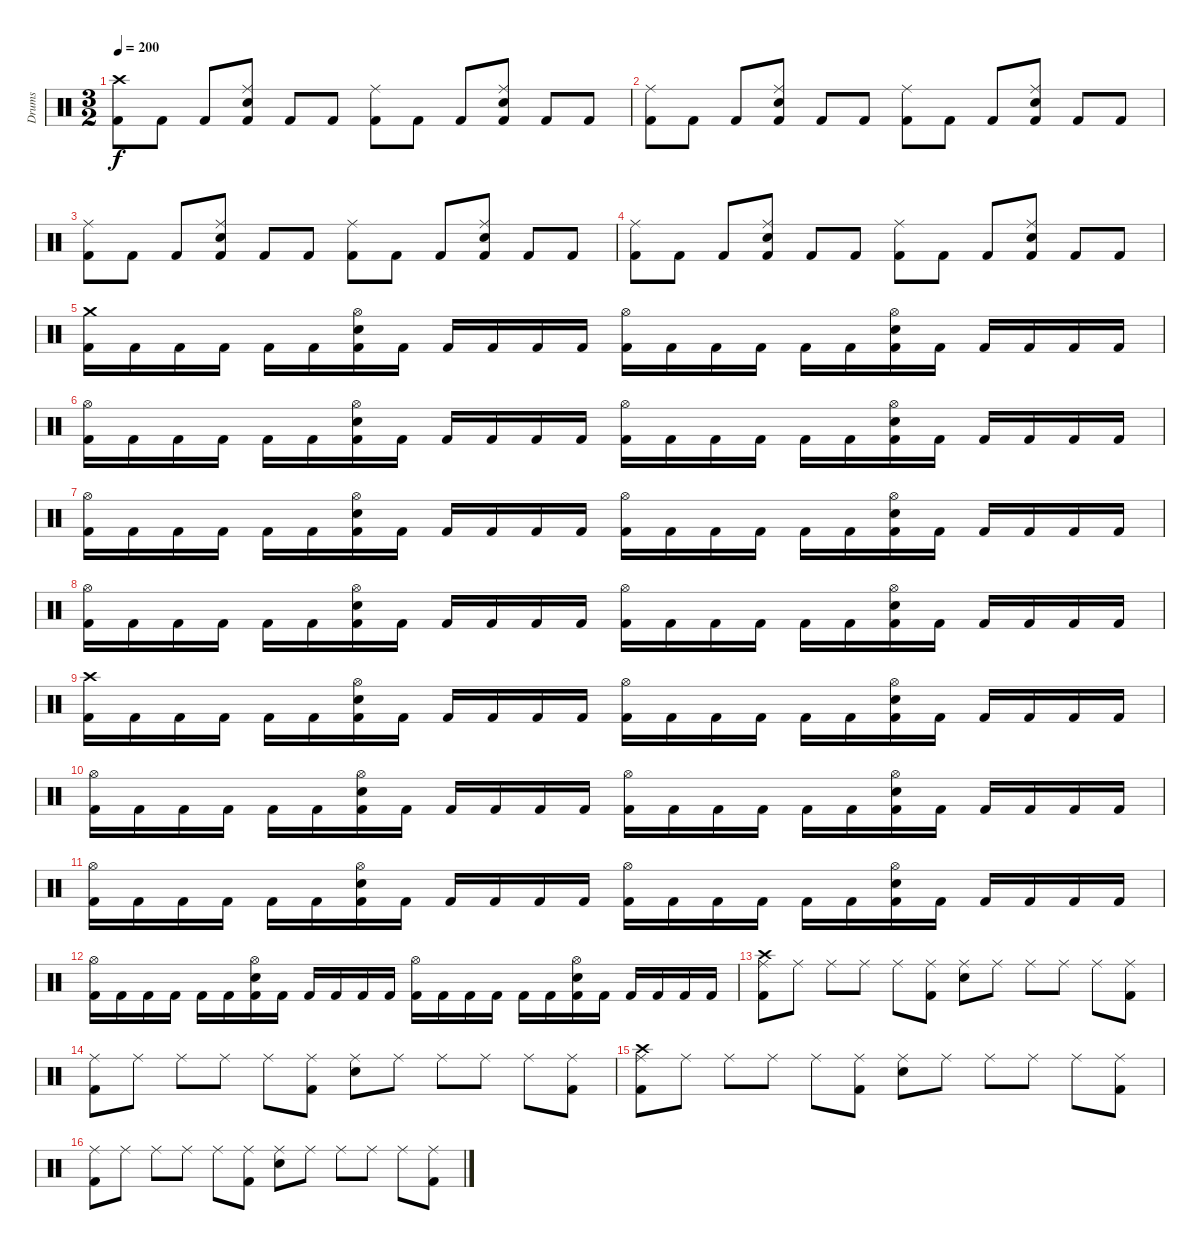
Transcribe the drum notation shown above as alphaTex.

\track ("Drums" "Drums") {instrument percussion}
\staff {score}
\articulation defaults
\ts (3 2)
\tempo 200
\clef neutral
\ks c
("Kick (hit) 2" "Crash high (hit)").8{dy f} "Kick (hit) 2".8 "Kick (hit) 2".8 ("Kick (hit) 2" "Ride (middle)" "Snare (hit) 2").8 "Kick (hit) 2".8 "Kick (hit) 2".8 ("Kick (hit) 2" "Ride (middle)").8 "Kick (hit) 2".8 "Kick (hit) 2".8 ("Kick (hit) 2" "Ride (middle)" "Snare (hit) 2").8 "Kick (hit) 2".8 "Kick (hit) 2".8 |
("Kick (hit) 2" "Ride (middle)").8 "Kick (hit) 2".8 "Kick (hit) 2".8 ("Kick (hit) 2" "Ride (middle)" "Snare (hit) 2").8 "Kick (hit) 2".8 "Kick (hit) 2".8 ("Kick (hit) 2" "Ride (middle)").8 "Kick (hit) 2".8 "Kick (hit) 2".8 ("Kick (hit) 2" "Ride (middle)" "Snare (hit) 2").8 "Kick (hit) 2".8 "Kick (hit) 2".8 |
("Kick (hit) 2" "Ride (middle)").8 "Kick (hit) 2".8 "Kick (hit) 2".8 ("Kick (hit) 2" "Ride (middle)" "Snare (hit) 2").8 "Kick (hit) 2".8 "Kick (hit) 2".8 ("Kick (hit) 2" "Ride (middle)").8 "Kick (hit) 2".8 "Kick (hit) 2".8 ("Kick (hit) 2" "Ride (middle)" "Snare (hit) 2").8 "Kick (hit) 2".8 "Kick (hit) 2".8 |
("Kick (hit) 2" "Ride (middle)").8 "Kick (hit) 2".8 "Kick (hit) 2".8 ("Kick (hit) 2" "Ride (middle)" "Snare (hit) 2").8 "Kick (hit) 2".8 "Kick (hit) 2".8 ("Kick (hit) 2" "Ride (middle)").8 "Kick (hit) 2".8 "Kick (hit) 2".8 ("Kick (hit) 2" "Ride (middle)" "Snare (hit) 2").8 "Kick (hit) 2".8 "Kick (hit) 2".8 |
("Kick (hit) 2" "Crash medium (hit)").16 "Kick (hit) 2".16 "Kick (hit) 2".16 "Kick (hit) 2".16 "Kick (hit) 2".16 "Kick (hit) 2".16 ("Kick (hit) 2" "Hi-Hat (open)" "Snare (hit) 2").16 "Kick (hit) 2".16 "Kick (hit) 2".16 "Kick (hit) 2".16 "Kick (hit) 2".16 "Kick (hit) 2".16 ("Kick (hit) 2" "Hi-Hat (open)").16 "Kick (hit) 2".16 "Kick (hit) 2".16 "Kick (hit) 2".16 "Kick (hit) 2".16 "Kick (hit) 2".16 ("Kick (hit) 2" "Hi-Hat (open)" "Snare (hit) 2").16 "Kick (hit) 2".16 "Kick (hit) 2".16 "Kick (hit) 2".16 "Kick (hit) 2".16 "Kick (hit) 2".16 |
("Kick (hit) 2" "Hi-Hat (open)").16 "Kick (hit) 2".16 "Kick (hit) 2".16 "Kick (hit) 2".16 "Kick (hit) 2".16 "Kick (hit) 2".16 ("Kick (hit) 2" "Hi-Hat (open)" "Snare (hit) 2").16 "Kick (hit) 2".16 "Kick (hit) 2".16 "Kick (hit) 2".16 "Kick (hit) 2".16 "Kick (hit) 2".16 ("Kick (hit) 2" "Hi-Hat (open)").16 "Kick (hit) 2".16 "Kick (hit) 2".16 "Kick (hit) 2".16 "Kick (hit) 2".16 "Kick (hit) 2".16 ("Kick (hit) 2" "Hi-Hat (open)" "Snare (hit) 2").16 "Kick (hit) 2".16 "Kick (hit) 2".16 "Kick (hit) 2".16 "Kick (hit) 2".16 "Kick (hit) 2".16 |
("Kick (hit) 2" "Hi-Hat (open)").16 "Kick (hit) 2".16 "Kick (hit) 2".16 "Kick (hit) 2".16 "Kick (hit) 2".16 "Kick (hit) 2".16 ("Kick (hit) 2" "Hi-Hat (open)" "Snare (hit) 2").16 "Kick (hit) 2".16 "Kick (hit) 2".16 "Kick (hit) 2".16 "Kick (hit) 2".16 "Kick (hit) 2".16 ("Kick (hit) 2" "Hi-Hat (open)").16 "Kick (hit) 2".16 "Kick (hit) 2".16 "Kick (hit) 2".16 "Kick (hit) 2".16 "Kick (hit) 2".16 ("Kick (hit) 2" "Hi-Hat (open)" "Snare (hit) 2").16 "Kick (hit) 2".16 "Kick (hit) 2".16 "Kick (hit) 2".16 "Kick (hit) 2".16 "Kick (hit) 2".16 |
("Kick (hit) 2" "Hi-Hat (open)").16 "Kick (hit) 2".16 "Kick (hit) 2".16 "Kick (hit) 2".16 "Kick (hit) 2".16 "Kick (hit) 2".16 ("Kick (hit) 2" "Hi-Hat (open)" "Snare (hit) 2").16 "Kick (hit) 2".16 "Kick (hit) 2".16 "Kick (hit) 2".16 "Kick (hit) 2".16 "Kick (hit) 2".16 ("Kick (hit) 2" "Hi-Hat (open)").16 "Kick (hit) 2".16 "Kick (hit) 2".16 "Kick (hit) 2".16 "Kick (hit) 2".16 "Kick (hit) 2".16 ("Kick (hit) 2" "Hi-Hat (open)" "Snare (hit) 2").16 "Kick (hit) 2".16 "Kick (hit) 2".16 "Kick (hit) 2".16 "Kick (hit) 2".16 "Kick (hit) 2".16 |
("Kick (hit) 2" "Crash high (hit)").16 "Kick (hit) 2".16 "Kick (hit) 2".16 "Kick (hit) 2".16 "Kick (hit) 2".16 "Kick (hit) 2".16 ("Kick (hit) 2" "Hi-Hat (open)" "Snare (hit) 2").16 "Kick (hit) 2".16 "Kick (hit) 2".16 "Kick (hit) 2".16 "Kick (hit) 2".16 "Kick (hit) 2".16 ("Kick (hit) 2" "Hi-Hat (open)").16 "Kick (hit) 2".16 "Kick (hit) 2".16 "Kick (hit) 2".16 "Kick (hit) 2".16 "Kick (hit) 2".16 ("Kick (hit) 2" "Hi-Hat (open)" "Snare (hit) 2").16 "Kick (hit) 2".16 "Kick (hit) 2".16 "Kick (hit) 2".16 "Kick (hit) 2".16 "Kick (hit) 2".16 |
("Kick (hit) 2" "Hi-Hat (open)").16 "Kick (hit) 2".16 "Kick (hit) 2".16 "Kick (hit) 2".16 "Kick (hit) 2".16 "Kick (hit) 2".16 ("Kick (hit) 2" "Hi-Hat (open)" "Snare (hit) 2").16 "Kick (hit) 2".16 "Kick (hit) 2".16 "Kick (hit) 2".16 "Kick (hit) 2".16 "Kick (hit) 2".16 ("Kick (hit) 2" "Hi-Hat (open)").16 "Kick (hit) 2".16 "Kick (hit) 2".16 "Kick (hit) 2".16 "Kick (hit) 2".16 "Kick (hit) 2".16 ("Kick (hit) 2" "Hi-Hat (open)" "Snare (hit) 2").16 "Kick (hit) 2".16 "Kick (hit) 2".16 "Kick (hit) 2".16 "Kick (hit) 2".16 "Kick (hit) 2".16 |
("Kick (hit) 2" "Hi-Hat (open)").16 "Kick (hit) 2".16 "Kick (hit) 2".16 "Kick (hit) 2".16 "Kick (hit) 2".16 "Kick (hit) 2".16 ("Kick (hit) 2" "Hi-Hat (open)" "Snare (hit) 2").16 "Kick (hit) 2".16 "Kick (hit) 2".16 "Kick (hit) 2".16 "Kick (hit) 2".16 "Kick (hit) 2".16 ("Kick (hit) 2" "Hi-Hat (open)").16 "Kick (hit) 2".16 "Kick (hit) 2".16 "Kick (hit) 2".16 "Kick (hit) 2".16 "Kick (hit) 2".16 ("Kick (hit) 2" "Hi-Hat (open)" "Snare (hit) 2").16 "Kick (hit) 2".16 "Kick (hit) 2".16 "Kick (hit) 2".16 "Kick (hit) 2".16 "Kick (hit) 2".16 |
("Kick (hit) 2" "Hi-Hat (open)").16 "Kick (hit) 2".16 "Kick (hit) 2".16 "Kick (hit) 2".16 "Kick (hit) 2".16 "Kick (hit) 2".16 ("Kick (hit) 2" "Hi-Hat (open)" "Snare (hit) 2").16 "Kick (hit) 2".16 "Kick (hit) 2".16 "Kick (hit) 2".16 "Kick (hit) 2".16 "Kick (hit) 2".16 ("Kick (hit) 2" "Hi-Hat (open)").16 "Kick (hit) 2".16 "Kick (hit) 2".16 "Kick (hit) 2".16 "Kick (hit) 2".16 "Kick (hit) 2".16 ("Kick (hit) 2" "Hi-Hat (open)" "Snare (hit) 2").16 "Kick (hit) 2".16 "Kick (hit) 2".16 "Kick (hit) 2".16 "Kick (hit) 2".16 "Kick (hit) 2".16 |
("Kick (hit) 2" "Ride (middle)" "Crash high (hit)").8 "Ride (middle)".8 "Ride (middle)".8 "Ride (middle)".8 "Ride (middle)".8 ("Kick (hit) 2" "Ride (middle)").8 ("Ride (middle)" "Snare (hit) 2").8 "Ride (middle)".8 "Ride (middle)".8 "Ride (middle)".8 "Ride (middle)".8 ("Kick (hit) 2" "Ride (middle)").8 |
("Kick (hit) 2" "Ride (middle)").8 "Ride (middle)".8 "Ride (middle)".8 "Ride (middle)".8 "Ride (middle)".8 ("Kick (hit) 2" "Ride (middle)").8 ("Ride (middle)" "Snare (hit) 2").8 "Ride (middle)".8 "Ride (middle)".8 "Ride (middle)".8 "Ride (middle)".8 ("Ride (middle)" "Kick (hit) 2").8 |
("Kick (hit) 2" "Ride (middle)" "Crash high (hit)").8 "Ride (middle)".8 "Ride (middle)".8 "Ride (middle)".8 "Ride (middle)".8 ("Kick (hit) 2" "Ride (middle)").8 ("Ride (middle)" "Snare (hit) 2").8 "Ride (middle)".8 "Ride (middle)".8 "Ride (middle)".8 "Ride (middle)".8 ("Kick (hit) 2" "Ride (middle)").8 |
("Kick (hit) 2" "Ride (middle)").8 "Ride (middle)".8 "Ride (middle)".8 "Ride (middle)".8 "Ride (middle)".8 ("Kick (hit) 2" "Ride (middle)").8 ("Ride (middle)" "Snare (hit) 2").8 "Ride (middle)".8 "Ride (middle)".8 "Ride (middle)".8 "Ride (middle)".8 ("Ride (middle)" "Kick (hit) 2").8
